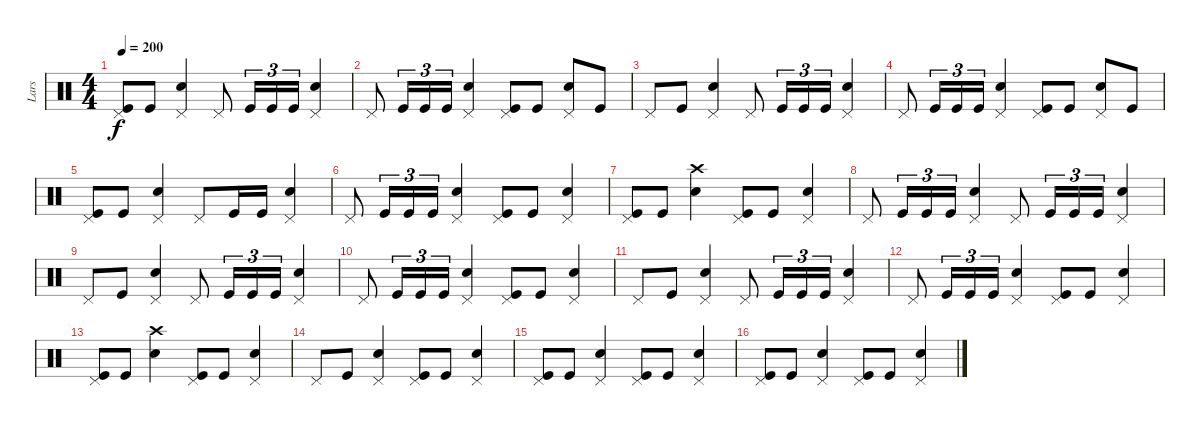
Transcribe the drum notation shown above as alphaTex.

\track ("Lars" "Lars") {instrument percussion}
\staff {score}
\articulation defaults
\ts (4 4)
\tempo 200
\clef neutral
\ks c
("Pedal Hi-Hat (hit)" "Kick (hit)").8{dy f} "Kick (hit)".8 ("Pedal Hi-Hat (hit)" "Snare (hit) 2").4 "Pedal Hi-Hat (hit)".8 "Kick (hit)".16{tu (3 2)} "Kick (hit)".16{tu (3 2)} "Kick (hit)".16{tu (3 2)} ("Pedal Hi-Hat (hit)" "Snare (hit) 2").4 |
"Pedal Hi-Hat (hit)".8 "Kick (hit)".16{tu (3 2)} "Kick (hit)".16{tu (3 2)} "Kick (hit)".16{tu (3 2)} ("Pedal Hi-Hat (hit)" "Snare (hit) 2").4 ("Pedal Hi-Hat (hit)" "Kick (hit)").8 "Kick (hit)".8 ("Pedal Hi-Hat (hit)" "Snare (hit) 2").8 "Kick (hit)".8 |
"Pedal Hi-Hat (hit)".8 "Kick (hit)".8 ("Pedal Hi-Hat (hit)" "Snare (hit) 2").4 "Pedal Hi-Hat (hit)".8 "Kick (hit)".16{tu (3 2)} "Kick (hit)".16{tu (3 2)} "Kick (hit)".16{tu (3 2)} ("Pedal Hi-Hat (hit)" "Snare (hit) 2").4 |
"Pedal Hi-Hat (hit)".8 "Kick (hit)".16{tu (3 2)} "Kick (hit)".16{tu (3 2)} "Kick (hit)".16{tu (3 2)} ("Pedal Hi-Hat (hit)" "Snare (hit) 2").4 ("Pedal Hi-Hat (hit)" "Kick (hit)").8 "Kick (hit)".8 ("Pedal Hi-Hat (hit)" "Snare (hit) 2").8 "Kick (hit)".8 |
("Pedal Hi-Hat (hit)" "Kick (hit)").8 "Kick (hit)".8 ("Pedal Hi-Hat (hit)" "Snare (hit) 2").4 "Pedal Hi-Hat (hit)".8 "Kick (hit)".16 "Kick (hit)".16 ("Pedal Hi-Hat (hit)" "Snare (hit) 2").4 |
"Pedal Hi-Hat (hit)".8 "Kick (hit)".16{tu (3 2)} "Kick (hit)".16{tu (3 2)} "Kick (hit)".16{tu (3 2)} ("Pedal Hi-Hat (hit)" "Snare (hit) 2").4 ("Pedal Hi-Hat (hit)" "Kick (hit)").8 "Kick (hit)".8 ("Pedal Hi-Hat (hit)" "Snare (hit) 2").4 |
("Pedal Hi-Hat (hit)" "Kick (hit)").8 "Kick (hit)".8 ("Crash high (hit)" "Snare (hit) 2").4 ("Pedal Hi-Hat (hit)" "Kick (hit)").8 "Kick (hit)".8 ("Pedal Hi-Hat (hit)" "Snare (hit) 2").4 |
"Pedal Hi-Hat (hit)".8 "Kick (hit)".16{tu (3 2)} "Kick (hit)".16{tu (3 2)} "Kick (hit)".16{tu (3 2)} ("Pedal Hi-Hat (hit)" "Snare (hit) 2").4 "Pedal Hi-Hat (hit)".8 "Kick (hit)".16{tu (3 2)} "Kick (hit)".16{tu (3 2)} "Kick (hit)".16{tu (3 2)} ("Pedal Hi-Hat (hit)" "Snare (hit) 2").4 |
"Pedal Hi-Hat (hit)".8 "Kick (hit)".8 ("Pedal Hi-Hat (hit)" "Snare (hit) 2").4 "Pedal Hi-Hat (hit)".8 "Kick (hit)".16{tu (3 2)} "Kick (hit)".16{tu (3 2)} "Kick (hit)".16{tu (3 2)} ("Pedal Hi-Hat (hit)" "Snare (hit) 2").4 |
"Pedal Hi-Hat (hit)".8 "Kick (hit)".16{tu (3 2)} "Kick (hit)".16{tu (3 2)} "Kick (hit)".16{tu (3 2)} ("Pedal Hi-Hat (hit)" "Snare (hit) 2").4 ("Pedal Hi-Hat (hit)" "Kick (hit)").8 "Kick (hit)".8 ("Pedal Hi-Hat (hit)" "Snare (hit) 2").4 |
"Pedal Hi-Hat (hit)".8 "Kick (hit)".8 ("Pedal Hi-Hat (hit)" "Snare (hit) 2").4 "Pedal Hi-Hat (hit)".8 "Kick (hit)".16{tu (3 2)} "Kick (hit)".16{tu (3 2)} "Kick (hit)".16{tu (3 2)} ("Pedal Hi-Hat (hit)" "Snare (hit) 2").4 |
"Pedal Hi-Hat (hit)".8 "Kick (hit)".16{tu (3 2)} "Kick (hit)".16{tu (3 2)} "Kick (hit)".16{tu (3 2)} ("Pedal Hi-Hat (hit)" "Snare (hit) 2").4 ("Pedal Hi-Hat (hit)" "Kick (hit)").8 "Kick (hit)".8 ("Pedal Hi-Hat (hit)" "Snare (hit) 2").4 |
("Pedal Hi-Hat (hit)" "Kick (hit)").8 "Kick (hit)".8 ("Crash high (hit)" "Snare (hit) 2").4 ("Pedal Hi-Hat (hit)" "Kick (hit)").8 "Kick (hit)".8 ("Pedal Hi-Hat (hit)" "Snare (hit) 2").4 |
"Pedal Hi-Hat (hit)".8 "Kick (hit)".8 ("Pedal Hi-Hat (hit)" "Snare (hit) 2").4 ("Pedal Hi-Hat (hit)" "Kick (hit)").8 "Kick (hit)".8 ("Pedal Hi-Hat (hit)" "Snare (hit) 2").4 |
("Pedal Hi-Hat (hit)" "Kick (hit)").8 "Kick (hit)".8 ("Pedal Hi-Hat (hit)" "Snare (hit) 2").4 ("Pedal Hi-Hat (hit)" "Kick (hit)").8 "Kick (hit)".8 ("Pedal Hi-Hat (hit)" "Snare (hit) 2").4 |
("Pedal Hi-Hat (hit)" "Kick (hit)").8 "Kick (hit)".8 ("Pedal Hi-Hat (hit)" "Snare (hit) 2").4 ("Pedal Hi-Hat (hit)" "Kick (hit)").8 "Kick (hit)".8 ("Pedal Hi-Hat (hit)" "Snare (hit) 2").4
